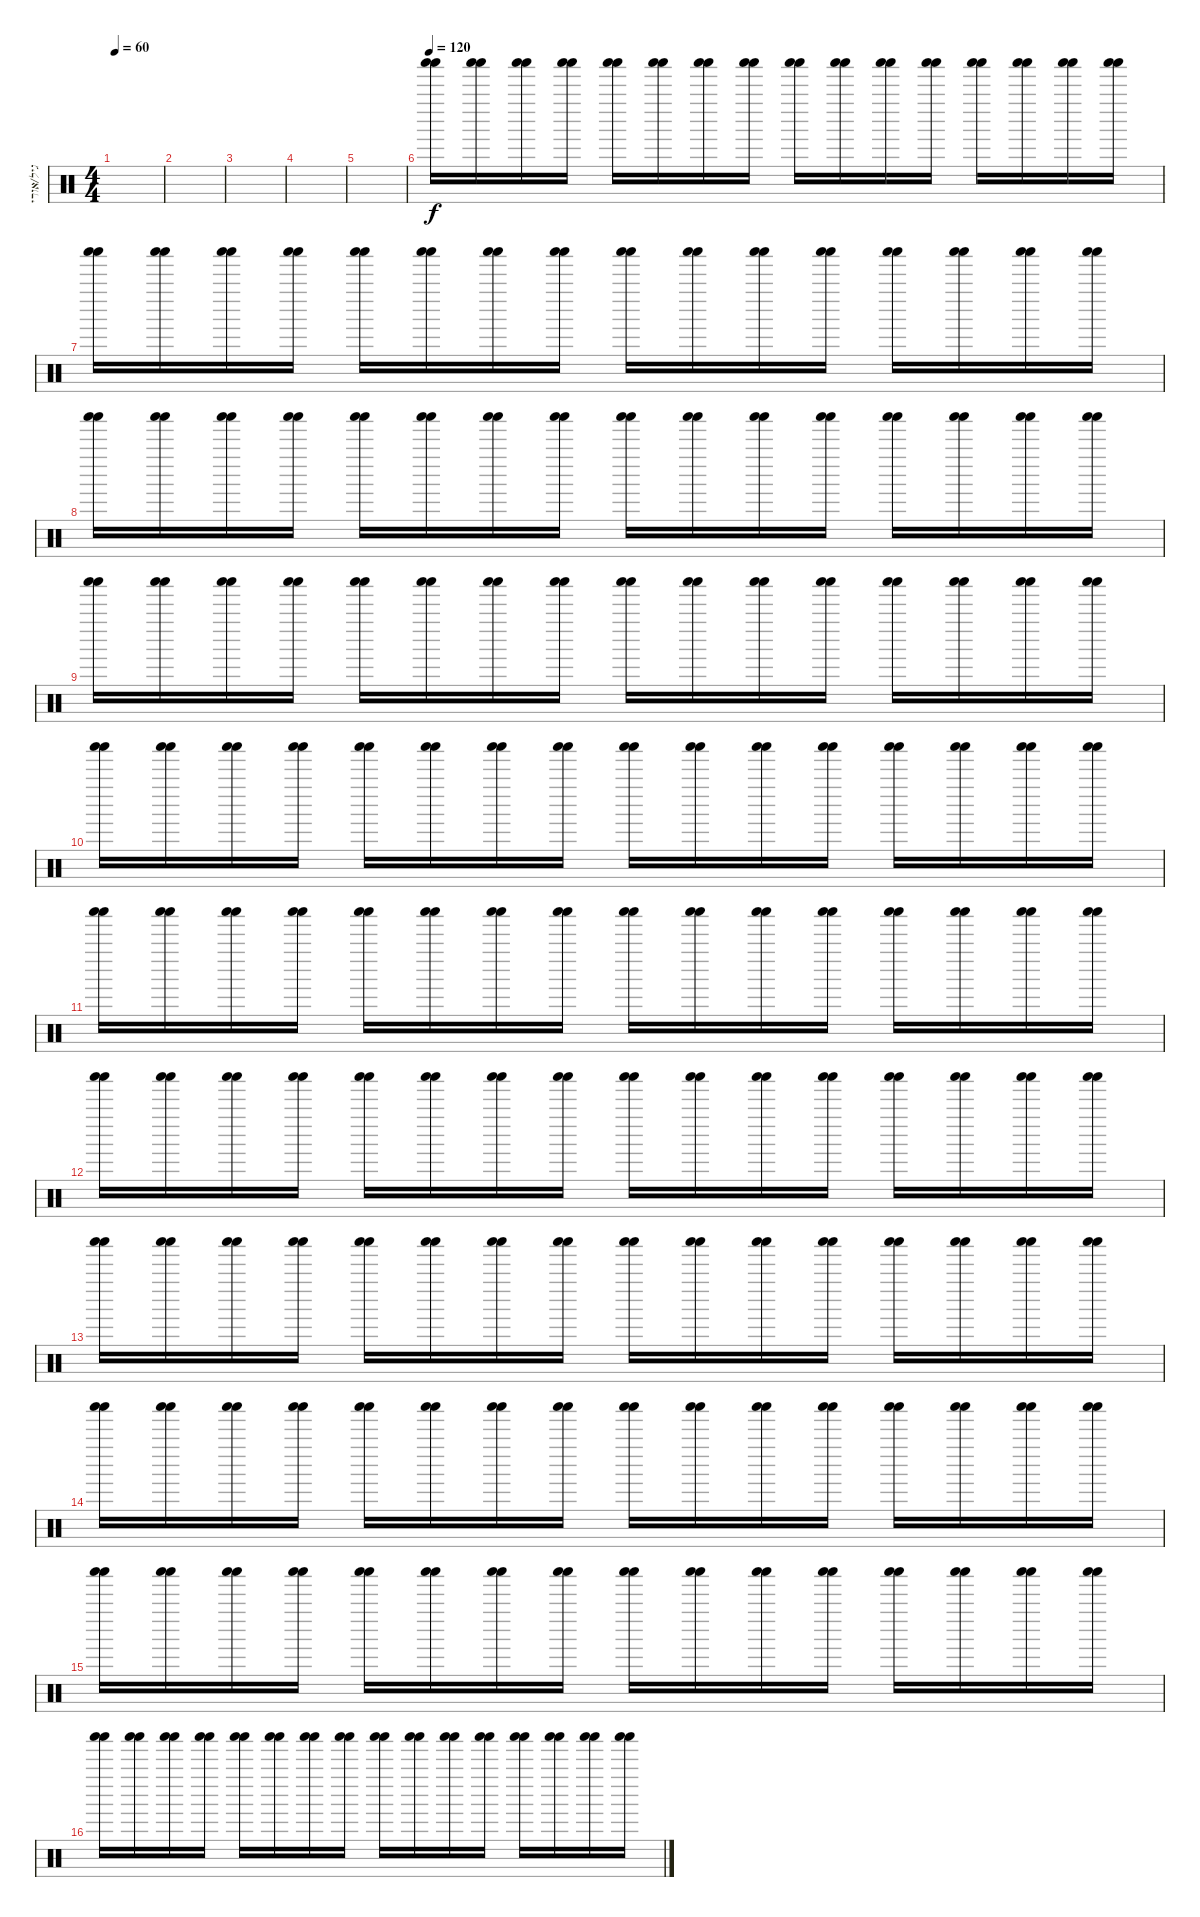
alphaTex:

\track ("גיל/אורי" "גיל/אורי") {instrument percussion}
\staff {score}
\articulation defaults
\ts (4 4)
\tempo 60
\clef neutral
\ks c
|
|
|
|
|
\tempo 120
("Shaker (hit)" "Shaker (hit)").16 ("Shaker (hit)" "Shaker (hit)").16 ("Shaker (hit)" "Shaker (hit)").16 ("Shaker (hit)" "Shaker (hit)").16 ("Shaker (hit)" "Shaker (hit)").16 ("Shaker (hit)" "Shaker (hit)").16 ("Shaker (hit)" "Shaker (hit)").16 ("Shaker (hit)" "Shaker (hit)").16 ("Shaker (hit)" "Shaker (hit)").16 ("Shaker (hit)" "Shaker (hit)").16 ("Shaker (hit)" "Shaker (hit)").16 ("Shaker (hit)" "Shaker (hit)").16 ("Shaker (hit)" "Shaker (hit)").16 ("Shaker (hit)" "Shaker (hit)").16 ("Shaker (hit)" "Shaker (hit)").16 ("Shaker (hit)" "Shaker (hit)").16 |
("Shaker (hit)" "Shaker (hit)").16 ("Shaker (hit)" "Shaker (hit)").16 ("Shaker (hit)" "Shaker (hit)").16 ("Shaker (hit)" "Shaker (hit)").16 ("Shaker (hit)" "Shaker (hit)").16 ("Shaker (hit)" "Shaker (hit)").16 ("Shaker (hit)" "Shaker (hit)").16 ("Shaker (hit)" "Shaker (hit)").16 ("Shaker (hit)" "Shaker (hit)").16 ("Shaker (hit)" "Shaker (hit)").16 ("Shaker (hit)" "Shaker (hit)").16 ("Shaker (hit)" "Shaker (hit)").16 ("Shaker (hit)" "Shaker (hit)").16 ("Shaker (hit)" "Shaker (hit)").16 ("Shaker (hit)" "Shaker (hit)").16 ("Shaker (hit)" "Shaker (hit)").16 |
("Shaker (hit)" "Shaker (hit)").16 ("Shaker (hit)" "Shaker (hit)").16 ("Shaker (hit)" "Shaker (hit)").16 ("Shaker (hit)" "Shaker (hit)").16 ("Shaker (hit)" "Shaker (hit)").16 ("Shaker (hit)" "Shaker (hit)").16 ("Shaker (hit)" "Shaker (hit)").16 ("Shaker (hit)" "Shaker (hit)").16 ("Shaker (hit)" "Shaker (hit)").16 ("Shaker (hit)" "Shaker (hit)").16 ("Shaker (hit)" "Shaker (hit)").16 ("Shaker (hit)" "Shaker (hit)").16 ("Shaker (hit)" "Shaker (hit)").16 ("Shaker (hit)" "Shaker (hit)").16 ("Shaker (hit)" "Shaker (hit)").16 ("Shaker (hit)" "Shaker (hit)").16 |
("Shaker (hit)" "Shaker (hit)").16 ("Shaker (hit)" "Shaker (hit)").16 ("Shaker (hit)" "Shaker (hit)").16 ("Shaker (hit)" "Shaker (hit)").16 ("Shaker (hit)" "Shaker (hit)").16 ("Shaker (hit)" "Shaker (hit)").16 ("Shaker (hit)" "Shaker (hit)").16 ("Shaker (hit)" "Shaker (hit)").16 ("Shaker (hit)" "Shaker (hit)").16 ("Shaker (hit)" "Shaker (hit)").16 ("Shaker (hit)" "Shaker (hit)").16 ("Shaker (hit)" "Shaker (hit)").16 ("Shaker (hit)" "Shaker (hit)").16 ("Shaker (hit)" "Shaker (hit)").16 ("Shaker (hit)" "Shaker (hit)").16 ("Shaker (hit)" "Shaker (hit)").16 |
("Shaker (hit)" "Shaker (hit)").16 ("Shaker (hit)" "Shaker (hit)").16 ("Shaker (hit)" "Shaker (hit)").16 ("Shaker (hit)" "Shaker (hit)").16 ("Shaker (hit)" "Shaker (hit)").16 ("Shaker (hit)" "Shaker (hit)").16 ("Shaker (hit)" "Shaker (hit)").16 ("Shaker (hit)" "Shaker (hit)").16 ("Shaker (hit)" "Shaker (hit)").16 ("Shaker (hit)" "Shaker (hit)").16 ("Shaker (hit)" "Shaker (hit)").16 ("Shaker (hit)" "Shaker (hit)").16 ("Shaker (hit)" "Shaker (hit)").16 ("Shaker (hit)" "Shaker (hit)").16 ("Shaker (hit)" "Shaker (hit)").16 ("Shaker (hit)" "Shaker (hit)").16 |
("Shaker (hit)" "Shaker (hit)").16 ("Shaker (hit)" "Shaker (hit)").16 ("Shaker (hit)" "Shaker (hit)").16 ("Shaker (hit)" "Shaker (hit)").16 ("Shaker (hit)" "Shaker (hit)").16 ("Shaker (hit)" "Shaker (hit)").16 ("Shaker (hit)" "Shaker (hit)").16 ("Shaker (hit)" "Shaker (hit)").16 ("Shaker (hit)" "Shaker (hit)").16 ("Shaker (hit)" "Shaker (hit)").16 ("Shaker (hit)" "Shaker (hit)").16 ("Shaker (hit)" "Shaker (hit)").16 ("Shaker (hit)" "Shaker (hit)").16 ("Shaker (hit)" "Shaker (hit)").16 ("Shaker (hit)" "Shaker (hit)").16 ("Shaker (hit)" "Shaker (hit)").16 |
("Shaker (hit)" "Shaker (hit)").16 ("Shaker (hit)" "Shaker (hit)").16 ("Shaker (hit)" "Shaker (hit)").16 ("Shaker (hit)" "Shaker (hit)").16 ("Shaker (hit)" "Shaker (hit)").16 ("Shaker (hit)" "Shaker (hit)").16 ("Shaker (hit)" "Shaker (hit)").16 ("Shaker (hit)" "Shaker (hit)").16 ("Shaker (hit)" "Shaker (hit)").16 ("Shaker (hit)" "Shaker (hit)").16 ("Shaker (hit)" "Shaker (hit)").16 ("Shaker (hit)" "Shaker (hit)").16 ("Shaker (hit)" "Shaker (hit)").16 ("Shaker (hit)" "Shaker (hit)").16 ("Shaker (hit)" "Shaker (hit)").16 ("Shaker (hit)" "Shaker (hit)").16 |
("Shaker (hit)" "Shaker (hit)").16 ("Shaker (hit)" "Shaker (hit)").16 ("Shaker (hit)" "Shaker (hit)").16 ("Shaker (hit)" "Shaker (hit)").16 ("Shaker (hit)" "Shaker (hit)").16 ("Shaker (hit)" "Shaker (hit)").16 ("Shaker (hit)" "Shaker (hit)").16 ("Shaker (hit)" "Shaker (hit)").16 ("Shaker (hit)" "Shaker (hit)").16 ("Shaker (hit)" "Shaker (hit)").16 ("Shaker (hit)" "Shaker (hit)").16 ("Shaker (hit)" "Shaker (hit)").16 ("Shaker (hit)" "Shaker (hit)").16 ("Shaker (hit)" "Shaker (hit)").16 ("Shaker (hit)" "Shaker (hit)").16 ("Shaker (hit)" "Shaker (hit)").16 |
("Shaker (hit)" "Shaker (hit)").16 ("Shaker (hit)" "Shaker (hit)").16 ("Shaker (hit)" "Shaker (hit)").16 ("Shaker (hit)" "Shaker (hit)").16 ("Shaker (hit)" "Shaker (hit)").16 ("Shaker (hit)" "Shaker (hit)").16 ("Shaker (hit)" "Shaker (hit)").16 ("Shaker (hit)" "Shaker (hit)").16 ("Shaker (hit)" "Shaker (hit)").16 ("Shaker (hit)" "Shaker (hit)").16 ("Shaker (hit)" "Shaker (hit)").16 ("Shaker (hit)" "Shaker (hit)").16 ("Shaker (hit)" "Shaker (hit)").16 ("Shaker (hit)" "Shaker (hit)").16 ("Shaker (hit)" "Shaker (hit)").16 ("Shaker (hit)" "Shaker (hit)").16 |
("Shaker (hit)" "Shaker (hit)").16 ("Shaker (hit)" "Shaker (hit)").16 ("Shaker (hit)" "Shaker (hit)").16 ("Shaker (hit)" "Shaker (hit)").16 ("Shaker (hit)" "Shaker (hit)").16 ("Shaker (hit)" "Shaker (hit)").16 ("Shaker (hit)" "Shaker (hit)").16 ("Shaker (hit)" "Shaker (hit)").16 ("Shaker (hit)" "Shaker (hit)").16 ("Shaker (hit)" "Shaker (hit)").16 ("Shaker (hit)" "Shaker (hit)").16 ("Shaker (hit)" "Shaker (hit)").16 ("Shaker (hit)" "Shaker (hit)").16 ("Shaker (hit)" "Shaker (hit)").16 ("Shaker (hit)" "Shaker (hit)").16 ("Shaker (hit)" "Shaker (hit)").16 |
("Shaker (hit)" "Shaker (hit)").16 ("Shaker (hit)" "Shaker (hit)").16 ("Shaker (hit)" "Shaker (hit)").16 ("Shaker (hit)" "Shaker (hit)").16 ("Shaker (hit)" "Shaker (hit)").16 ("Shaker (hit)" "Shaker (hit)").16 ("Shaker (hit)" "Shaker (hit)").16 ("Shaker (hit)" "Shaker (hit)").16 ("Shaker (hit)" "Shaker (hit)").16 ("Shaker (hit)" "Shaker (hit)").16 ("Shaker (hit)" "Shaker (hit)").16 ("Shaker (hit)" "Shaker (hit)").16 ("Shaker (hit)" "Shaker (hit)").16 ("Shaker (hit)" "Shaker (hit)").16 ("Shaker (hit)" "Shaker (hit)").16 ("Shaker (hit)" "Shaker (hit)").16
